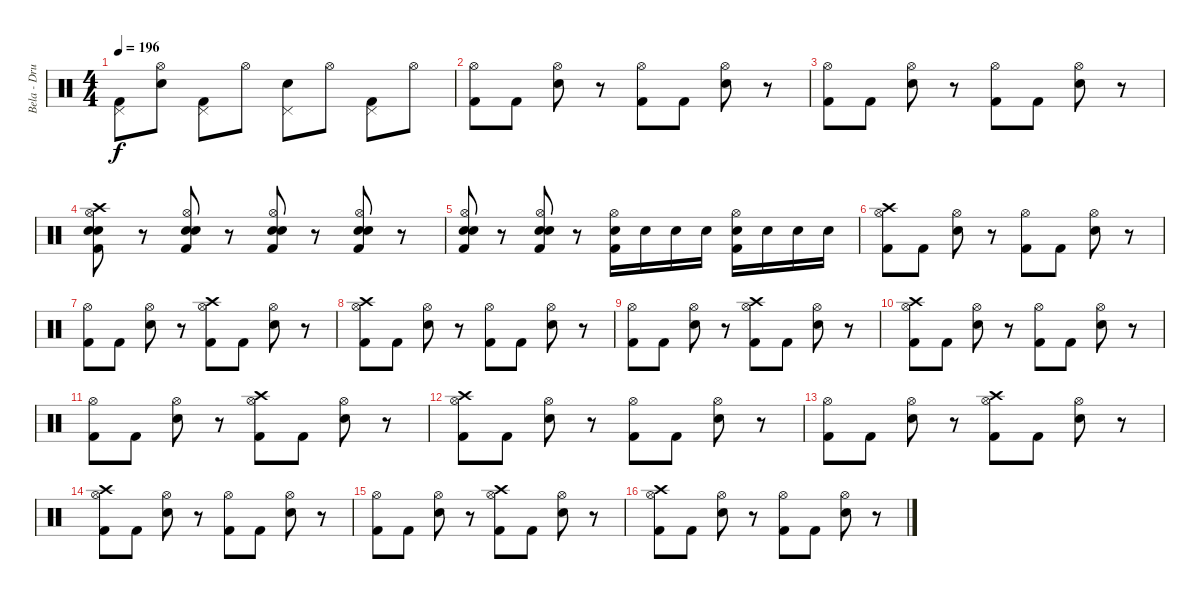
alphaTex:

\track ("Bela - Drums" "Bela - Dru") {instrument percussion}
\staff {score}
\articulation defaults
\ts (4 4)
\tempo 196
\clef neutral
\ks c
("Kick (hit) 2" "Pedal Hi-Hat (hit)").8{dy f} ("Electric Snare (hit)" "Hi-Hat (open)").8 ("Pedal Hi-Hat (hit)" "Kick (hit) 2").8 "Hi-Hat (open)".8 ("Pedal Hi-Hat (hit)" "Electric Snare (hit)").8 "Hi-Hat (open)".8 ("Pedal Hi-Hat (hit)" "Kick (hit) 2").8 "Hi-Hat (open)".8 |
("Kick (hit) 2" "Hi-Hat (open)").8 "Kick (hit) 2".8 ("Electric Snare (hit)" "Hi-Hat (open)").8 r.8 ("Hi-Hat (open)" "Kick (hit) 2").8 "Kick (hit) 2".8 ("Electric Snare (hit)" "Hi-Hat (open)").8 r.8 |
("Kick (hit) 2" "Hi-Hat (open)").8 "Kick (hit) 2".8 ("Electric Snare (hit)" "Hi-Hat (open)").8 r.8 ("Hi-Hat (open)" "Kick (hit) 2").8 "Kick (hit) 2".8 ("Electric Snare (hit)" "Hi-Hat (open)").8 r.8 |
("Electric Snare (hit)" "Kick (hit) 2" "Snare (hit) 2" "Hi-Hat (open)" "Crash high (hit)").8 r.8 ("Hi-Hat (open)" "Snare (hit) 2" "Electric Snare (hit)" "Kick (hit) 2").8 r.8 ("Snare (hit) 2" "Kick (hit) 2" "Electric Snare (hit)" "Hi-Hat (open)").8 r.8 ("Kick (hit) 2" "Snare (hit) 2" "Hi-Hat (open)" "Electric Snare (hit)").8 r.8 |
("Kick (hit) 2" "Hi-Hat (open)" "Snare (hit) 2" "Electric Snare (hit)").8 r.8 ("Hi-Hat (open)" "Snare (hit) 2" "Kick (hit) 2" "Electric Snare (hit)").8 r.8 ("Hi-Hat (open)" "Kick (hit) 2" "Electric Snare (hit)").16 "Electric Snare (hit)".16 "Electric Snare (hit)".16 "Electric Snare (hit)".16 ("Hi-Hat (open)" "Kick (hit) 2" "Electric Snare (hit)").16 "Electric Snare (hit)".16 "Electric Snare (hit)".16 "Electric Snare (hit)".16 |
("Crash high (hit)" "Kick (hit) 2" "Hi-Hat (open)").8 "Kick (hit) 2".8 ("Electric Snare (hit)" "Hi-Hat (open)").8 r.8 ("Hi-Hat (open)" "Kick (hit) 2").8 "Kick (hit) 2".8 ("Electric Snare (hit)" "Hi-Hat (open)").8 r.8 |
("Kick (hit) 2" "Hi-Hat (open)").8 "Kick (hit) 2".8 ("Electric Snare (hit)" "Hi-Hat (open)").8 r.8 ("Crash high (hit)" "Hi-Hat (open)" "Kick (hit) 2").8 "Kick (hit) 2".8 ("Electric Snare (hit)" "Hi-Hat (open)").8 r.8 |
("Crash high (hit)" "Kick (hit) 2" "Hi-Hat (open)").8 "Kick (hit) 2".8 ("Electric Snare (hit)" "Hi-Hat (open)").8 r.8 ("Hi-Hat (open)" "Kick (hit) 2").8 "Kick (hit) 2".8 ("Electric Snare (hit)" "Hi-Hat (open)").8 r.8 |
("Kick (hit) 2" "Hi-Hat (open)").8 "Kick (hit) 2".8 ("Electric Snare (hit)" "Hi-Hat (open)").8 r.8 ("Crash high (hit)" "Hi-Hat (open)" "Kick (hit) 2").8 "Kick (hit) 2".8 ("Electric Snare (hit)" "Hi-Hat (open)").8 r.8 |
("Crash high (hit)" "Kick (hit) 2" "Hi-Hat (open)").8 "Kick (hit) 2".8 ("Electric Snare (hit)" "Hi-Hat (open)").8 r.8 ("Hi-Hat (open)" "Kick (hit) 2").8 "Kick (hit) 2".8 ("Electric Snare (hit)" "Hi-Hat (open)").8 r.8 |
("Kick (hit) 2" "Hi-Hat (open)").8 "Kick (hit) 2".8 ("Electric Snare (hit)" "Hi-Hat (open)").8 r.8 ("Crash high (hit)" "Hi-Hat (open)" "Kick (hit) 2").8 "Kick (hit) 2".8 ("Electric Snare (hit)" "Hi-Hat (open)").8 r.8 |
("Crash high (hit)" "Kick (hit) 2" "Hi-Hat (open)").8 "Kick (hit) 2".8 ("Electric Snare (hit)" "Hi-Hat (open)").8 r.8 ("Hi-Hat (open)" "Kick (hit) 2").8 "Kick (hit) 2".8 ("Electric Snare (hit)" "Hi-Hat (open)").8 r.8 |
("Kick (hit) 2" "Hi-Hat (open)").8 "Kick (hit) 2".8 ("Electric Snare (hit)" "Hi-Hat (open)").8 r.8 ("Crash high (hit)" "Hi-Hat (open)" "Kick (hit) 2").8 "Kick (hit) 2".8 ("Electric Snare (hit)" "Hi-Hat (open)").8 r.8 |
("Crash high (hit)" "Kick (hit) 2" "Hi-Hat (open)").8 "Kick (hit) 2".8 ("Electric Snare (hit)" "Hi-Hat (open)").8 r.8 ("Hi-Hat (open)" "Kick (hit) 2").8 "Kick (hit) 2".8 ("Electric Snare (hit)" "Hi-Hat (open)").8 r.8 |
("Kick (hit) 2" "Hi-Hat (open)").8 "Kick (hit) 2".8 ("Electric Snare (hit)" "Hi-Hat (open)").8 r.8 ("Crash high (hit)" "Hi-Hat (open)" "Kick (hit) 2").8 "Kick (hit) 2".8 ("Electric Snare (hit)" "Hi-Hat (open)").8 r.8 |
("Crash high (hit)" "Kick (hit) 2" "Hi-Hat (open)").8 "Kick (hit) 2".8 ("Electric Snare (hit)" "Hi-Hat (open)").8 r.8 ("Hi-Hat (open)" "Kick (hit) 2").8 "Kick (hit) 2".8 ("Electric Snare (hit)" "Hi-Hat (open)").8 r.8
